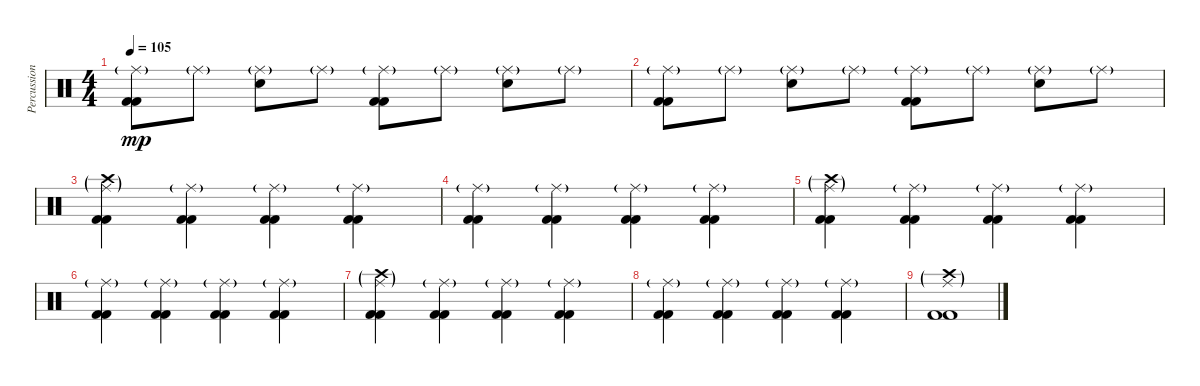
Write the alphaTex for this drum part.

\track ("Percussion" "Percussion") {instrument percussion}
\staff {score}
\articulation defaults
\ts (4 4)
\tempo 105
\clef neutral
\ks c
("Ride (middle)"{g} "Kick (hit) 2" "Kick (hit) 2").8{dy mp} "Ride (middle)"{g}.8 ("Ride (middle)"{g} "Snare (hit) 2").8 "Ride (middle)"{g}.8 ("Ride (middle)"{g} "Kick (hit) 2" "Kick (hit) 2").8 "Ride (middle)"{g}.8 ("Ride (middle)"{g} "Snare (hit) 2").8 "Ride (middle)"{g}.8 |
("Ride (middle)"{g} "Kick (hit) 2" "Kick (hit) 2").8 "Ride (middle)"{g}.8 ("Ride (middle)"{g} "Snare (hit) 2").8 "Ride (middle)"{g}.8 ("Ride (middle)"{g} "Kick (hit) 2" "Kick (hit) 2").8 "Ride (middle)"{g}.8 ("Ride (middle)"{g} "Snare (hit) 2").8 "Ride (middle)"{g}.8 |
("Ride (middle)"{g} "Crash high (hit)"{g} "Kick (hit) 2" "Kick (hit) 2").4 ("Ride (middle)"{g} "Kick (hit) 2" "Kick (hit) 2").4 ("Ride (middle)"{g} "Kick (hit) 2" "Kick (hit) 2").4 ("Ride (middle)"{g} "Kick (hit) 2" "Kick (hit) 2").4 |
("Ride (middle)"{g} "Kick (hit) 2" "Kick (hit) 2").4 ("Ride (middle)"{g} "Kick (hit) 2" "Kick (hit) 2").4 ("Ride (middle)"{g} "Kick (hit) 2" "Kick (hit) 2").4 ("Ride (middle)"{g} "Kick (hit) 2" "Kick (hit) 2").4 |
("Ride (middle)"{g} "Crash high (hit)"{g} "Kick (hit) 2" "Kick (hit) 2").4 ("Ride (middle)"{g} "Kick (hit) 2" "Kick (hit) 2").4 ("Ride (middle)"{g} "Kick (hit) 2" "Kick (hit) 2").4 ("Ride (middle)"{g} "Kick (hit) 2" "Kick (hit) 2").4 |
("Ride (middle)"{g} "Kick (hit) 2" "Kick (hit) 2").4 ("Ride (middle)"{g} "Kick (hit) 2" "Kick (hit) 2").4 ("Ride (middle)"{g} "Kick (hit) 2" "Kick (hit) 2").4 ("Ride (middle)"{g} "Kick (hit) 2" "Kick (hit) 2").4 |
("Ride (middle)"{g} "Crash high (hit)"{g} "Kick (hit) 2" "Kick (hit) 2").4 ("Ride (middle)"{g} "Kick (hit) 2" "Kick (hit) 2").4 ("Ride (middle)"{g} "Kick (hit) 2" "Kick (hit) 2").4 ("Ride (middle)"{g} "Kick (hit) 2" "Kick (hit) 2").4 |
("Ride (middle)"{g} "Kick (hit) 2" "Kick (hit) 2").4 ("Ride (middle)"{g} "Kick (hit) 2" "Kick (hit) 2").4 ("Ride (middle)"{g} "Kick (hit) 2" "Kick (hit) 2").4 ("Ride (middle)"{g} "Kick (hit) 2" "Kick (hit) 2").4 |
("Ride (middle)"{g} "Crash high (hit)"{g} "Kick (hit) 2" "Kick (hit) 2").1
